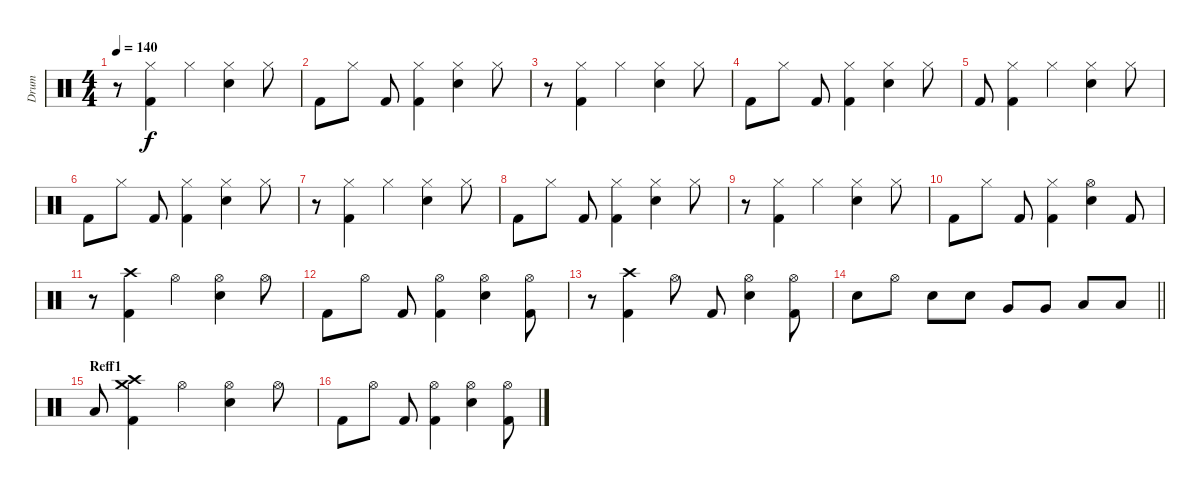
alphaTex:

\track ("Drum" "Drum") {instrument percussion}
\staff {score}
\articulation defaults
\ts (4 4)
\tempo 140
\clef neutral
\ks c
r.8{dy f} ("Hi-Hat (closed)" "Kick (hit) 2").4 "Hi-Hat (closed)".4 ("Electric Snare (hit)" "Hi-Hat (closed)").4 "Hi-Hat (closed)".8 |
"Kick (hit) 2".8 "Hi-Hat (closed)".8 "Kick (hit) 2".8 ("Hi-Hat (closed)" "Kick (hit) 2").4 ("Hi-Hat (closed)" "Electric Snare (hit)").4 "Hi-Hat (closed)".8 |
r.8 ("Hi-Hat (closed)" "Kick (hit) 2").4 "Hi-Hat (closed)".4 ("Electric Snare (hit)" "Hi-Hat (closed)").4 "Hi-Hat (closed)".8 |
"Kick (hit) 2".8 "Hi-Hat (closed)".8 "Kick (hit) 2".8 ("Hi-Hat (closed)" "Kick (hit) 2").4 ("Hi-Hat (closed)" "Electric Snare (hit)").4 "Hi-Hat (closed)".8 |
"Kick (hit) 2".8 ("Hi-Hat (closed)" "Kick (hit) 2").4 "Hi-Hat (closed)".4 ("Electric Snare (hit)" "Hi-Hat (closed)").4 "Hi-Hat (closed)".8 |
"Kick (hit) 2".8 "Hi-Hat (closed)".8 "Kick (hit) 2".8 ("Hi-Hat (closed)" "Kick (hit) 2").4 ("Hi-Hat (closed)" "Electric Snare (hit)").4 "Hi-Hat (closed)".8 |
r.8 ("Hi-Hat (closed)" "Kick (hit) 2").4 "Hi-Hat (closed)".4 ("Electric Snare (hit)" "Hi-Hat (closed)").4 "Hi-Hat (closed)".8 |
"Kick (hit) 2".8 "Hi-Hat (closed)".8 "Kick (hit) 2".8 ("Hi-Hat (closed)" "Kick (hit) 2").4 ("Hi-Hat (closed)" "Electric Snare (hit)").4 "Hi-Hat (closed)".8 |
r.8 ("Hi-Hat (closed)" "Kick (hit) 2").4 "Hi-Hat (closed)".4 ("Electric Snare (hit)" "Hi-Hat (closed)").4 "Hi-Hat (closed)".8 |
"Kick (hit) 2".8 "Hi-Hat (closed)".8 "Kick (hit) 2".8 ("Hi-Hat (closed)" "Kick (hit) 2").4 ("Hi-Hat (open)" "Electric Snare (hit)").4 "Kick (hit) 2".8 |
r.8 ("Kick (hit) 2" "Crash high (hit)").4 "Hi-Hat (open)".4 ("Hi-Hat (open)" "Electric Snare (hit)").4 "Hi-Hat (open)".8 |
"Kick (hit) 2".8 "Hi-Hat (open)".8 "Kick (hit) 2".8 ("Hi-Hat (open)" "Kick (hit) 2").4 ("Electric Snare (hit)" "Hi-Hat (open)").4 ("Hi-Hat (open)" "Kick (hit) 2").8 |
r.8 ("Kick (hit) 2" "Crash high (hit)").4 "Hi-Hat (open)".8 "Kick (hit) 2".8 ("Hi-Hat (open)" "Electric Snare (hit)").4 ("Hi-Hat (open)" "Kick (hit) 2").8 |
\barLineRight lightlight "Electric Snare (hit)".8 "Hi-Hat (open)".8 "Electric Snare (hit)".8 "Electric Snare (hit)".8 "Very Low Tom (hit)".8 "Very Low Tom (hit)".8 "Low Floor Tom (hit)".8 "Low Floor Tom (hit)".8
|
\section ("" "Reff1")
"Low Floor Tom (hit)".8 ("Kick (hit) 2" "Crash medium (hit)" "Crash high (hit)").4 "Hi-Hat (open)".4 ("Hi-Hat (open)" "Electric Snare (hit)").4 "Hi-Hat (open)".8 |
"Kick (hit) 2".8 "Hi-Hat (open)".8 "Kick (hit) 2".8 ("Hi-Hat (open)" "Kick (hit) 2").4 ("Electric Snare (hit)" "Hi-Hat (open)").4 ("Hi-Hat (open)" "Kick (hit) 2").8
